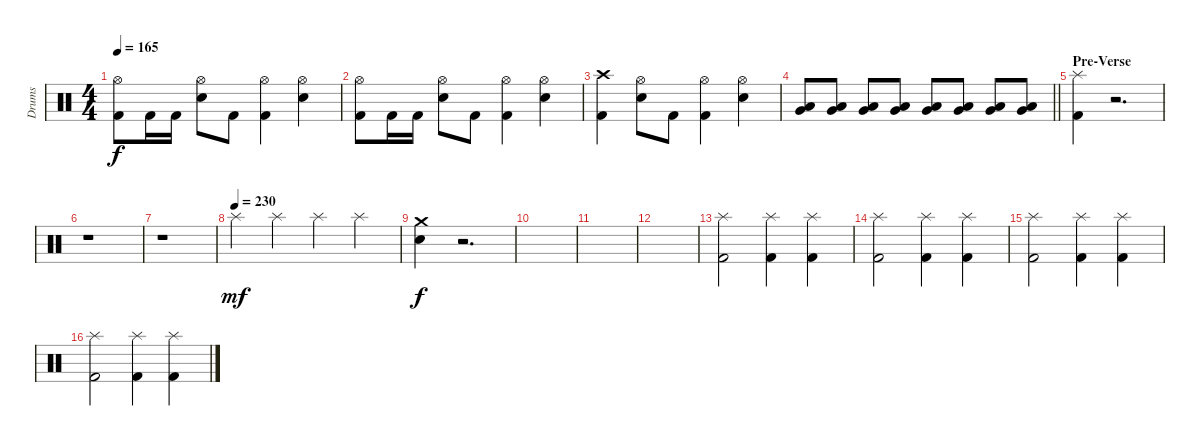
\track ("Drums" "Drums") {instrument percussion}
\staff {score}
\articulation defaults
\ts (4 4)
\tempo 165
\clef neutral
\ks c
("Hi-Hat (open)" "Kick (hit) 2").8{dy f} "Kick (hit) 2".16 "Kick (hit) 2".16 ("Hi-Hat (open)" "Snare (hit) 2").8 "Kick (hit) 2".8 ("Hi-Hat (open)" "Kick (hit) 2").4 ("Hi-Hat (open)" "Snare (hit) 2").4 |
("Hi-Hat (open)" "Kick (hit) 2").8 "Kick (hit) 2".16 "Kick (hit) 2".16 ("Hi-Hat (open)" "Snare (hit) 2").8 "Kick (hit) 2".8 ("Hi-Hat (open)" "Kick (hit) 2").4 ("Hi-Hat (open)" "Snare (hit) 2").4 |
("Crash high (hit)" "Kick (hit) 2").4 ("Hi-Hat (open)" "Snare (hit) 2").8 "Kick (hit) 2".8 ("Hi-Hat (open)" "Kick (hit) 2").4 ("Hi-Hat (open)" "Snare (hit) 2").4 |
\barLineRight lightlight
("Low Tom (hit)" "Very Low Tom (hit)").8 ("Low Tom (hit)" "Very Low Tom (hit)").8 ("Very Low Tom (hit)" "Low Floor Tom (hit)").8 ("Very Low Tom (hit)" "Low Floor Tom (hit)").8 ("Low Tom (hit)" "Very Low Tom (hit)").8 ("Low Tom (hit)" "Very Low Tom (hit)").8 ("Very Low Tom (hit)" "Low Floor Tom (hit)").8 ("Very Low Tom (hit)" "Low Floor Tom (hit)").8 |
\section ("" "Pre-Verse")
("Splash (hit)" "Kick (hit) 2").4 r.2{d} |
r.1 |
r.1 |
\tempo (230)
"Splash (hit)".4{dy mf} "Splash (hit)".4 "Splash (hit)".4 "Splash (hit)".4 |
("Crash medium (hit)" "Snare (hit) 2").4{dy f} r.2{d} |
|
|
|
("Splash (hit)" "Kick (hit) 2").2 ("Splash (hit)" "Kick (hit) 2").4 ("Splash (hit)" "Kick (hit) 2").4 |
("Splash (hit)" "Kick (hit) 2").2 ("Splash (hit)" "Kick (hit) 2").4 ("Splash (hit)" "Kick (hit) 2").4 |
("Splash (hit)" "Kick (hit) 2").2 ("Splash (hit)" "Kick (hit) 2").4 ("Splash (hit)" "Kick (hit) 2").4 |
("Splash (hit)" "Kick (hit) 2").2 ("Splash (hit)" "Kick (hit) 2").4 ("Splash (hit)" "Kick (hit) 2").4
